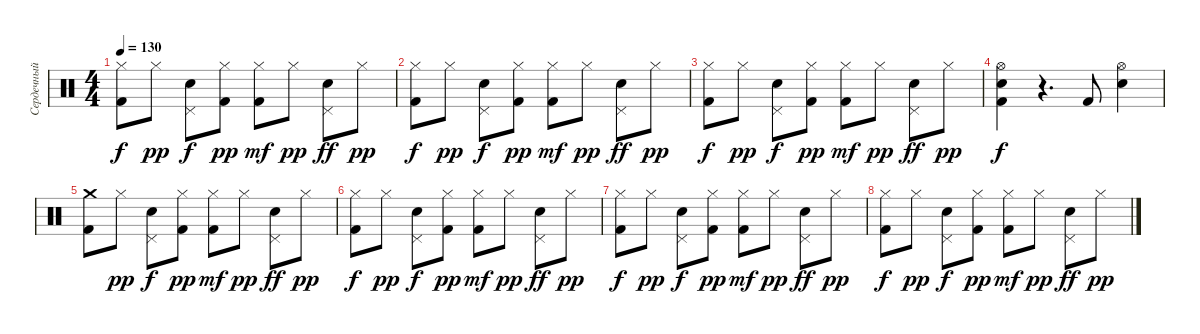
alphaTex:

\track ("Сердечный (Ударные)" "Сердечный ") {instrument percussion}
\staff {score}
\articulation defaults
\ts (4 4)
\tempo 130
\clef neutral
\ks c
("Hi-Hat (closed)" "Kick (hit) 2").8{dy f} "Hi-Hat (closed)".8{dy pp} ("Pedal Hi-Hat (hit)" "Electric Snare (hit)").8{dy f} ("Hi-Hat (closed)" "Kick (hit) 2").8{dy pp} ("Hi-Hat (closed)" "Kick (hit) 2").8{dy mf} "Hi-Hat (closed)".8{dy pp} ("Pedal Hi-Hat (hit)" "Electric Snare (hit)").8{dy ff} "Hi-Hat (closed)".8{dy pp} |
("Hi-Hat (closed)" "Kick (hit) 2").8{dy f} "Hi-Hat (closed)".8{dy pp} ("Pedal Hi-Hat (hit)" "Electric Snare (hit)").8{dy f} ("Hi-Hat (closed)" "Kick (hit) 2").8{dy pp} ("Hi-Hat (closed)" "Kick (hit) 2").8{dy mf} "Hi-Hat (closed)".8{dy pp} ("Pedal Hi-Hat (hit)" "Electric Snare (hit)").8{dy ff} "Hi-Hat (closed)".8{dy pp} |
("Hi-Hat (closed)" "Kick (hit) 2").8{dy f} "Hi-Hat (closed)".8{dy pp} ("Pedal Hi-Hat (hit)" "Electric Snare (hit)").8{dy f} ("Hi-Hat (closed)" "Kick (hit) 2").8{dy pp} ("Hi-Hat (closed)" "Kick (hit) 2").8{dy mf} "Hi-Hat (closed)".8{dy pp} ("Pedal Hi-Hat (hit)" "Electric Snare (hit)").8{dy ff} "Hi-Hat (closed)".8{dy pp} |
("Kick (hit) 2" "Electric Snare (hit)" "Hi-Hat (open)").4{dy f} r.4{d} "Kick (hit) 2".8 ("Hi-Hat (open)" "Electric Snare (hit)").4 |
("Kick (hit) 2" "Crash medium (hit)").8 "Hi-Hat (closed)".8{dy pp} ("Pedal Hi-Hat (hit)" "Electric Snare (hit)").8{dy f} ("Hi-Hat (closed)" "Kick (hit) 2").8{dy pp} ("Hi-Hat (closed)" "Kick (hit) 2").8{dy mf} "Hi-Hat (closed)".8{dy pp} ("Pedal Hi-Hat (hit)" "Electric Snare (hit)").8{dy ff} "Hi-Hat (closed)".8{dy pp} |
("Hi-Hat (closed)" "Kick (hit) 2").8{dy f} "Hi-Hat (closed)".8{dy pp} ("Pedal Hi-Hat (hit)" "Electric Snare (hit)").8{dy f} ("Hi-Hat (closed)" "Kick (hit) 2").8{dy pp} ("Hi-Hat (closed)" "Kick (hit) 2").8{dy mf} "Hi-Hat (closed)".8{dy pp} ("Pedal Hi-Hat (hit)" "Electric Snare (hit)").8{dy ff} "Hi-Hat (closed)".8{dy pp} |
("Hi-Hat (closed)" "Kick (hit) 2").8{dy f} "Hi-Hat (closed)".8{dy pp} ("Pedal Hi-Hat (hit)" "Electric Snare (hit)").8{dy f} ("Hi-Hat (closed)" "Kick (hit) 2").8{dy pp} ("Hi-Hat (closed)" "Kick (hit) 2").8{dy mf} "Hi-Hat (closed)".8{dy pp} ("Pedal Hi-Hat (hit)" "Electric Snare (hit)").8{dy ff} "Hi-Hat (closed)".8{dy pp} |
("Hi-Hat (closed)" "Kick (hit) 2").8{dy f} "Hi-Hat (closed)".8{dy pp} ("Pedal Hi-Hat (hit)" "Electric Snare (hit)").8{dy f} ("Hi-Hat (closed)" "Kick (hit) 2").8{dy pp} ("Hi-Hat (closed)" "Kick (hit) 2").8{dy mf} "Hi-Hat (closed)".8{dy pp} ("Pedal Hi-Hat (hit)" "Electric Snare (hit)").8{dy ff} "Hi-Hat (closed)".8{dy pp}
